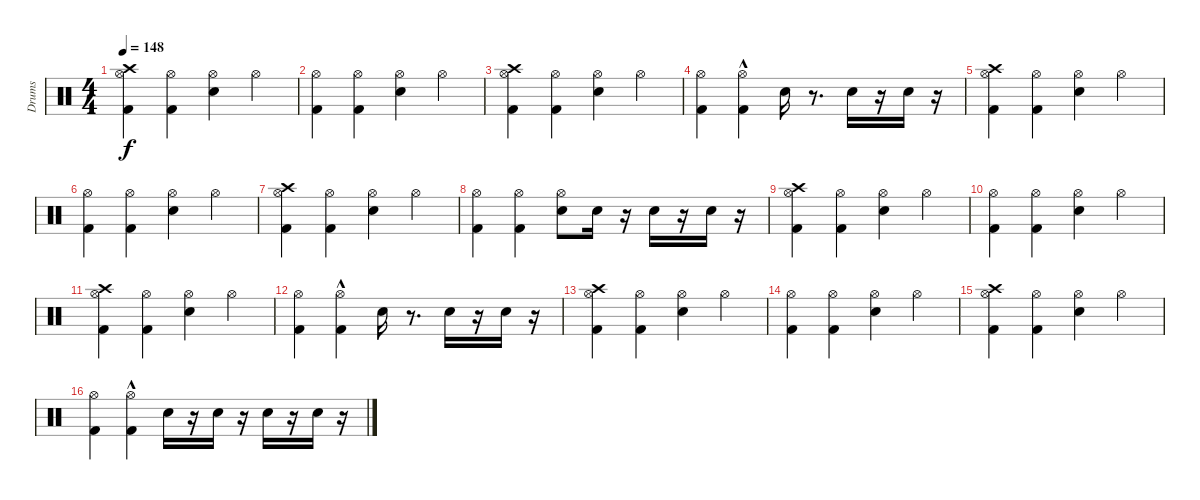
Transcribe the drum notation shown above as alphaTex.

\track ("Drums" "Drums") {instrument percussion}
\staff {score}
\articulation defaults
\ts (4 4)
\tempo 148
\clef neutral
\ks c
("Hi-Hat (open)" "Kick (hit) 2" "Crash high (hit)").4{dy f} ("Kick (hit) 2" "Hi-Hat (open)").4 ("Hi-Hat (open)" "Snare (hit) 2").4 "Hi-Hat (open)".4 |
("Hi-Hat (open)" "Kick (hit) 2").4 ("Hi-Hat (open)" "Kick (hit) 2").4 ("Hi-Hat (open)" "Snare (hit) 2").4 "Hi-Hat (open)".4 |
("Crash high (hit)" "Hi-Hat (open)" "Kick (hit) 2").4 ("Hi-Hat (open)" "Kick (hit) 2").4 ("Hi-Hat (open)" "Snare (hit) 2").4 "Hi-Hat (open)".4 |
("Hi-Hat (open)" "Kick (hit) 2").4 ("Hi-Hat (open)"{hac} "Kick (hit) 2").4 "Snare (hit) 2".16 r.8{d} "Snare (hit) 2".16 r.16 "Snare (hit) 2".16 r.16 |
("Hi-Hat (open)" "Kick (hit) 2" "Crash high (hit)").4 ("Kick (hit) 2" "Hi-Hat (open)").4 ("Hi-Hat (open)" "Snare (hit) 2").4 "Hi-Hat (open)".4 |
("Hi-Hat (open)" "Kick (hit) 2").4 ("Hi-Hat (open)" "Kick (hit) 2").4 ("Hi-Hat (open)" "Snare (hit) 2").4 "Hi-Hat (open)".4 |
("Crash high (hit)" "Hi-Hat (open)" "Kick (hit) 2").4 ("Hi-Hat (open)" "Kick (hit) 2").4 ("Hi-Hat (open)" "Snare (hit) 2").4 "Hi-Hat (open)".4 |
("Hi-Hat (open)" "Kick (hit) 2").4 ("Hi-Hat (open)" "Kick (hit) 2").4 ("Hi-Hat (open)" "Snare (hit) 2").8 "Snare (hit) 2".16 r.16 "Snare (hit) 2".16 r.16 "Snare (hit) 2".16 r.16 |
("Hi-Hat (open)" "Kick (hit) 2" "Crash high (hit)").4 ("Kick (hit) 2" "Hi-Hat (open)").4 ("Hi-Hat (open)" "Snare (hit) 2").4 "Hi-Hat (open)".4 |
("Hi-Hat (open)" "Kick (hit) 2").4 ("Hi-Hat (open)" "Kick (hit) 2").4 ("Hi-Hat (open)" "Snare (hit) 2").4 "Hi-Hat (open)".4 |
("Crash high (hit)" "Hi-Hat (open)" "Kick (hit) 2").4 ("Hi-Hat (open)" "Kick (hit) 2").4 ("Hi-Hat (open)" "Snare (hit) 2").4 "Hi-Hat (open)".4 |
("Hi-Hat (open)" "Kick (hit) 2").4 ("Hi-Hat (open)"{hac} "Kick (hit) 2").4 "Snare (hit) 2".16 r.8{d} "Snare (hit) 2".16 r.16 "Snare (hit) 2".16 r.16 |
("Hi-Hat (open)" "Kick (hit) 2" "Crash high (hit)").4 ("Kick (hit) 2" "Hi-Hat (open)").4 ("Hi-Hat (open)" "Snare (hit) 2").4 "Hi-Hat (open)".4 |
("Hi-Hat (open)" "Kick (hit) 2").4 ("Hi-Hat (open)" "Kick (hit) 2").4 ("Hi-Hat (open)" "Snare (hit) 2").4 "Hi-Hat (open)".4 |
("Crash high (hit)" "Hi-Hat (open)" "Kick (hit) 2").4 ("Hi-Hat (open)" "Kick (hit) 2").4 ("Hi-Hat (open)" "Snare (hit) 2").4 "Hi-Hat (open)".4 |
("Hi-Hat (open)" "Kick (hit) 2").4 ("Hi-Hat (open)"{hac} "Kick (hit) 2").4 "Snare (hit) 2".16 r.16 "Snare (hit) 2".16 r.16 "Snare (hit) 2".16 r.16 "Snare (hit) 2".16 r.16
